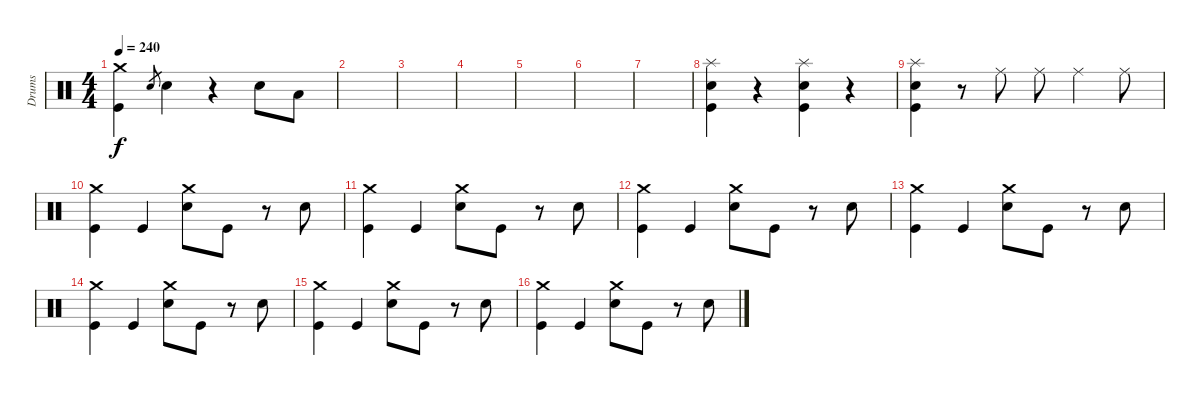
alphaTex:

\track ("Drums" "Drums") {instrument percussion}
\staff {score}
\articulation defaults
\ts (4 4)
\tempo 240
\clef neutral
\ks c
("Crash medium (hit)" "Kick (hit)").4{dy f} "Snare (hit) 2".8{gr} "Snare (hit) 2".4 r.4 "Snare (hit) 2".8 "Low Tom (hit)".8 |
|
|
|
|
|
|
("Splash (hit)" "Snare (hit) 2" "Kick (hit)").4 r.4 ("Splash (hit)" "Snare (hit) 2" "Kick (hit)").4 r.4 |
("Splash (hit)" "Snare (hit) 2" "Kick (hit)").4 r.8 "Ride (middle)".8 "Ride (middle)".8 "Ride (middle)".4 "Ride (middle)".8 |
("Crash medium (hit)" "Kick (hit)").4 "Kick (hit)".4 ("Crash medium (hit)" "Snare (hit) 2").8 "Kick (hit)".8 r.8 "Snare (hit) 2".8 |
("Crash medium (hit)" "Kick (hit)").4 "Kick (hit)".4 ("Crash medium (hit)" "Snare (hit) 2").8 "Kick (hit)".8 r.8 "Snare (hit) 2".8 |
("Crash medium (hit)" "Kick (hit)").4 "Kick (hit)".4 ("Crash medium (hit)" "Snare (hit) 2").8 "Kick (hit)".8 r.8 "Snare (hit) 2".8 |
("Crash medium (hit)" "Kick (hit)").4 "Kick (hit)".4 ("Crash medium (hit)" "Snare (hit) 2").8 "Kick (hit)".8 r.8 "Snare (hit) 2".8 |
("Crash medium (hit)" "Kick (hit)").4 "Kick (hit)".4 ("Crash medium (hit)" "Snare (hit) 2").8 "Kick (hit)".8 r.8 "Snare (hit) 2".8 |
("Crash medium (hit)" "Kick (hit)").4 "Kick (hit)".4 ("Crash medium (hit)" "Snare (hit) 2").8 "Kick (hit)".8 r.8 "Snare (hit) 2".8 |
("Crash medium (hit)" "Kick (hit)").4 "Kick (hit)".4 ("Crash medium (hit)" "Snare (hit) 2").8 "Kick (hit)".8 r.8 "Snare (hit) 2".8
